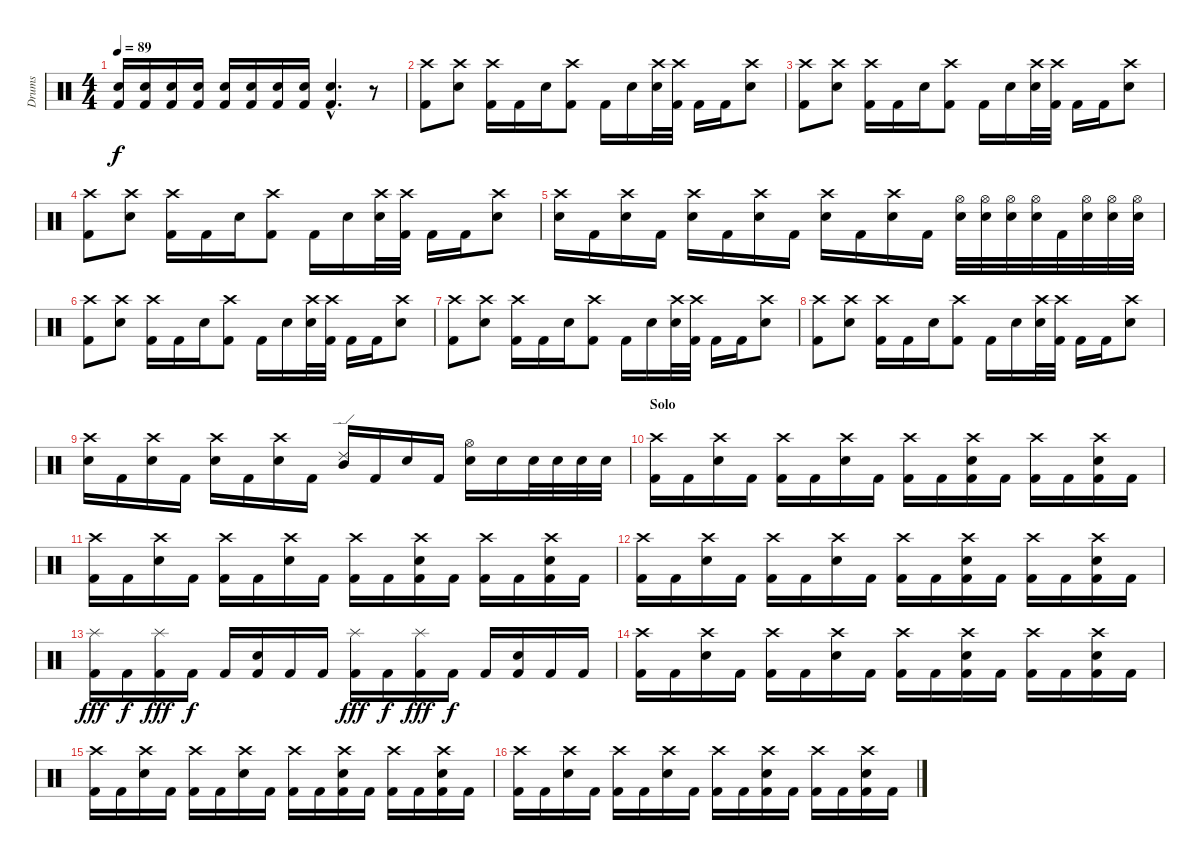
\track ("Drums" "Drums") {instrument percussion}
\staff {score}
\articulation defaults
\ts (4 4)
\tempo 89
\clef neutral
\ks c
("Electric Snare (hit)" "Kick (hit) 2").16{dy f} ("Electric Snare (hit)" "Kick (hit) 2").16 ("Electric Snare (hit)" "Kick (hit) 2").16 ("Electric Snare (hit)" "Kick (hit) 2").16 ("Electric Snare (hit)" "Kick (hit) 2").16 ("Electric Snare (hit)" "Kick (hit) 2").16 ("Electric Snare (hit)" "Kick (hit) 2").16 ("Electric Snare (hit)" "Kick (hit) 2").16 ("Electric Snare (hit)"{hac} "Kick (hit) 2"{hac}).4{d} r.8 |
("Crash high (hit)" "Kick (hit) 2").8 ("Crash high (hit)" "Electric Snare (hit)").8 ("Crash high (hit)" "Kick (hit) 2").16 "Kick (hit) 2".16 "Electric Snare (hit)".16 ("Crash high (hit)" "Kick (hit) 2").8 "Kick (hit) 2".16 "Electric Snare (hit)".16 ("Crash high (hit)" "Electric Snare (hit)").32 ("Crash high (hit)" "Kick (hit) 2").32 "Kick (hit) 2".16 "Kick (hit) 2".16 ("Crash high (hit)" "Electric Snare (hit)").8 |
("Crash high (hit)" "Kick (hit) 2").8 ("Crash high (hit)" "Electric Snare (hit)").8 ("Crash high (hit)" "Kick (hit) 2").16 "Kick (hit) 2".16 "Electric Snare (hit)".16 ("Crash high (hit)" "Kick (hit) 2").8 "Kick (hit) 2".16 "Electric Snare (hit)".16 ("Crash high (hit)" "Electric Snare (hit)").32 ("Crash high (hit)" "Kick (hit) 2").32 "Kick (hit) 2".16 "Kick (hit) 2".16 ("Crash high (hit)" "Electric Snare (hit)").8 |
("Crash high (hit)" "Kick (hit) 2").8 ("Crash high (hit)" "Electric Snare (hit)").8 ("Crash high (hit)" "Kick (hit) 2").16 "Kick (hit) 2".16 "Electric Snare (hit)".16 ("Crash high (hit)" "Kick (hit) 2").8 "Kick (hit) 2".16 "Electric Snare (hit)".16 ("Crash high (hit)" "Electric Snare (hit)").32 ("Crash high (hit)" "Kick (hit) 2").32 "Kick (hit) 2".16 "Kick (hit) 2".16 ("Crash high (hit)" "Electric Snare (hit)").8 |
("Crash high (hit)" "Electric Snare (hit)").16 "Kick (hit) 2".16 ("Crash high (hit)" "Electric Snare (hit)").16 "Kick (hit) 2".16 ("Crash high (hit)" "Electric Snare (hit)").16 "Kick (hit) 2".16 ("Crash high (hit)" "Electric Snare (hit)").16 "Kick (hit) 2".16 ("Crash high (hit)" "Electric Snare (hit)").16 "Kick (hit) 2".16 ("Crash high (hit)" "Electric Snare (hit)").16 "Kick (hit) 2".16 ("Hi-Hat (open)" "Electric Snare (hit)").32 ("Hi-Hat (open)" "Electric Snare (hit)").32 ("Hi-Hat (open)" "Electric Snare (hit)").32 ("Hi-Hat (open)" "Electric Snare (hit)").32 "Kick (hit) 2".32 ("Hi-Hat (open)" "Electric Snare (hit)").32 ("Hi-Hat (open)" "Electric Snare (hit)").32 ("Hi-Hat (open)" "Electric Snare (hit)").32 |
("Crash high (hit)" "Kick (hit) 2").8 ("Crash high (hit)" "Electric Snare (hit)").8 ("Crash high (hit)" "Kick (hit) 2").16 "Kick (hit) 2".16 "Electric Snare (hit)".16 ("Crash high (hit)" "Kick (hit) 2").8 "Kick (hit) 2".16 "Electric Snare (hit)".16 ("Crash high (hit)" "Electric Snare (hit)").32 ("Crash high (hit)" "Kick (hit) 2").32 "Kick (hit) 2".16 "Kick (hit) 2".16 ("Crash high (hit)" "Electric Snare (hit)").8 |
("Crash high (hit)" "Kick (hit) 2").8 ("Crash high (hit)" "Electric Snare (hit)").8 ("Crash high (hit)" "Kick (hit) 2").16 "Kick (hit) 2".16 "Electric Snare (hit)".16 ("Crash high (hit)" "Kick (hit) 2").8 "Kick (hit) 2".16 "Electric Snare (hit)".16 ("Crash high (hit)" "Electric Snare (hit)").32 ("Crash high (hit)" "Kick (hit) 2").32 "Kick (hit) 2".16 "Kick (hit) 2".16 ("Crash high (hit)" "Electric Snare (hit)").8 |
("Crash high (hit)" "Kick (hit) 2").8 ("Crash high (hit)" "Electric Snare (hit)").8 ("Crash high (hit)" "Kick (hit) 2").16 "Kick (hit) 2".16 "Electric Snare (hit)".16 ("Crash high (hit)" "Kick (hit) 2").8 "Kick (hit) 2".16 "Electric Snare (hit)".16 ("Crash high (hit)" "Electric Snare (hit)").32 ("Crash high (hit)" "Kick (hit) 2").32 "Kick (hit) 2".16 "Kick (hit) 2".16 ("Crash high (hit)" "Electric Snare (hit)").8 |
("Crash high (hit)" "Electric Snare (hit)").16 "Kick (hit) 2".16 ("Crash high (hit)" "Electric Snare (hit)").16 "Kick (hit) 2".16 ("Crash high (hit)" "Electric Snare (hit)").16 "Kick (hit) 2".16 ("Crash high (hit)" "Electric Snare (hit)").16 "Kick (hit) 2".16 ("Ride (edge) 2" "Mid Tom (hit)").16 "Kick (hit) 2".16 "Electric Snare (hit)".16 "Kick (hit) 2".16 ("Hi-Hat (open)" "Electric Snare (hit)").16 "Electric Snare (hit)".16 "Electric Snare (hit)".32 "Electric Snare (hit)".32 "Electric Snare (hit)".32 "Electric Snare (hit)".32 |
\section ("" "Solo")
("Crash high (hit)" "Kick (hit) 2").16 "Kick (hit) 2".16 ("Crash high (hit)" "Electric Snare (hit)").16 "Kick (hit) 2".16 ("Crash high (hit)" "Kick (hit) 2").16 "Kick (hit) 2".16 ("Crash high (hit)" "Electric Snare (hit)").16 "Kick (hit) 2".16 ("Crash high (hit)" "Kick (hit) 2").16 "Kick (hit) 2".16 ("Crash high (hit)" "Electric Snare (hit)" "Kick (hit) 2").16 "Kick (hit) 2".16 ("Crash high (hit)" "Kick (hit) 2").16 "Kick (hit) 2".16 ("Crash high (hit)" "Electric Snare (hit)" "Kick (hit) 2").16 "Kick (hit) 2".16 |
("Crash high (hit)" "Kick (hit) 2").16 "Kick (hit) 2".16 ("Crash high (hit)" "Electric Snare (hit)").16 "Kick (hit) 2".16 ("Crash high (hit)" "Kick (hit) 2").16 "Kick (hit) 2".16 ("Crash high (hit)" "Electric Snare (hit)").16 "Kick (hit) 2".16 ("Crash high (hit)" "Kick (hit) 2").16 "Kick (hit) 2".16 ("Crash high (hit)" "Electric Snare (hit)" "Kick (hit) 2").16 "Kick (hit) 2".16 ("Crash high (hit)" "Kick (hit) 2").16 "Kick (hit) 2".16 ("Crash high (hit)" "Electric Snare (hit)" "Kick (hit) 2").16 "Kick (hit) 2".16 |
("Crash high (hit)" "Kick (hit) 2").16 "Kick (hit) 2".16 ("Crash high (hit)" "Electric Snare (hit)").16 "Kick (hit) 2".16 ("Crash high (hit)" "Kick (hit) 2").16 "Kick (hit) 2".16 ("Crash high (hit)" "Electric Snare (hit)").16 "Kick (hit) 2".16 ("Crash high (hit)" "Kick (hit) 2").16 "Kick (hit) 2".16 ("Crash high (hit)" "Electric Snare (hit)" "Kick (hit) 2").16 "Kick (hit) 2".16 ("Crash high (hit)" "Kick (hit) 2").16 "Kick (hit) 2".16 ("Crash high (hit)" "Electric Snare (hit)" "Kick (hit) 2").16 "Kick (hit) 2".16 |
("Splash (hit)" "Kick (hit) 2").16{dy fff} "Kick (hit) 2".16{dy f} ("Splash (hit)" "Kick (hit) 2").16{dy fff} "Kick (hit) 2".16{dy f} "Kick (hit) 2".16 ("Electric Snare (hit)" "Kick (hit) 2").16 "Kick (hit) 2".16 "Kick (hit) 2".16 ("Splash (hit)" "Kick (hit) 2").16{dy fff} "Kick (hit) 2".16{dy f} ("Splash (hit)" "Kick (hit) 2").16{dy fff} "Kick (hit) 2".16{dy f} "Kick (hit) 2".16 ("Electric Snare (hit)" "Kick (hit) 2").16 "Kick (hit) 2".16 "Kick (hit) 2".16 |
("Crash high (hit)" "Kick (hit) 2").16 "Kick (hit) 2".16 ("Crash high (hit)" "Electric Snare (hit)").16 "Kick (hit) 2".16 ("Crash high (hit)" "Kick (hit) 2").16 "Kick (hit) 2".16 ("Crash high (hit)" "Electric Snare (hit)").16 "Kick (hit) 2".16 ("Crash high (hit)" "Kick (hit) 2").16 "Kick (hit) 2".16 ("Crash high (hit)" "Electric Snare (hit)" "Kick (hit) 2").16 "Kick (hit) 2".16 ("Crash high (hit)" "Kick (hit) 2").16 "Kick (hit) 2".16 ("Crash high (hit)" "Electric Snare (hit)" "Kick (hit) 2").16 "Kick (hit) 2".16 |
("Crash high (hit)" "Kick (hit) 2").16 "Kick (hit) 2".16 ("Crash high (hit)" "Electric Snare (hit)").16 "Kick (hit) 2".16 ("Crash high (hit)" "Kick (hit) 2").16 "Kick (hit) 2".16 ("Crash high (hit)" "Electric Snare (hit)").16 "Kick (hit) 2".16 ("Crash high (hit)" "Kick (hit) 2").16 "Kick (hit) 2".16 ("Crash high (hit)" "Electric Snare (hit)" "Kick (hit) 2").16 "Kick (hit) 2".16 ("Crash high (hit)" "Kick (hit) 2").16 "Kick (hit) 2".16 ("Crash high (hit)" "Electric Snare (hit)" "Kick (hit) 2").16 "Kick (hit) 2".16 |
("Crash high (hit)" "Kick (hit) 2").16 "Kick (hit) 2".16 ("Crash high (hit)" "Electric Snare (hit)").16 "Kick (hit) 2".16 ("Crash high (hit)" "Kick (hit) 2").16 "Kick (hit) 2".16 ("Crash high (hit)" "Electric Snare (hit)").16 "Kick (hit) 2".16 ("Crash high (hit)" "Kick (hit) 2").16 "Kick (hit) 2".16 ("Crash high (hit)" "Electric Snare (hit)" "Kick (hit) 2").16 "Kick (hit) 2".16 ("Crash high (hit)" "Kick (hit) 2").16 "Kick (hit) 2".16 ("Crash high (hit)" "Electric Snare (hit)" "Kick (hit) 2").16 "Kick (hit) 2".16
